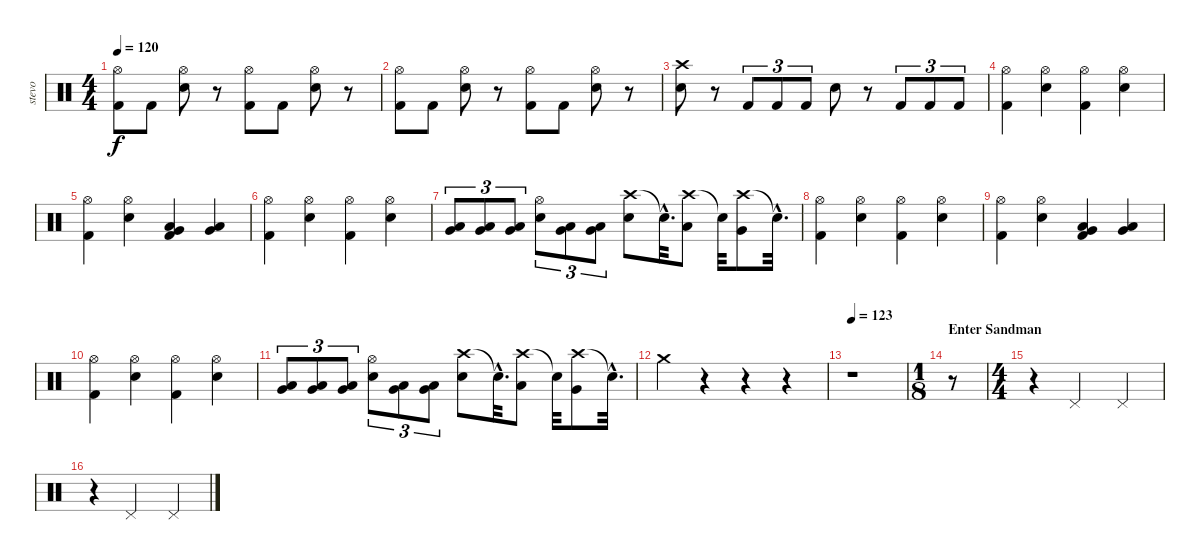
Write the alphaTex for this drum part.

\track ("stevo" "stevo") {instrument percussion}
\staff {score}
\articulation defaults
\ts (4 4)
\tempo 120
\clef neutral
\ks c
("Hi-Hat (open)" "Kick (hit) 2").8{dy f} "Kick (hit) 2".8 ("Hi-Hat (open)" "Electric Snare (hit)").8 r.8 ("Hi-Hat (open)" "Kick (hit) 2").8 "Kick (hit) 2".8 ("Hi-Hat (open)" "Electric Snare (hit)").8 r.8 |
("Hi-Hat (open)" "Kick (hit) 2").8 "Kick (hit) 2".8 ("Hi-Hat (open)" "Electric Snare (hit)").8 r.8 ("Hi-Hat (open)" "Kick (hit) 2").8 "Kick (hit) 2".8 ("Hi-Hat (open)" "Electric Snare (hit)").8 r.8 |
("Crash high (hit)" "Electric Snare (hit)").8 r.8 "Kick (hit) 2".8{tu (3 2)} "Kick (hit) 2".8{tu (3 2)} "Kick (hit) 2".8{tu (3 2)} "Electric Snare (hit)".8 r.8 "Kick (hit) 2".8{tu (3 2)} "Kick (hit) 2".8{tu (3 2)} "Kick (hit) 2".8{tu (3 2)} |
("Hi-Hat (open)" "Kick (hit) 2").4 ("Hi-Hat (open)" "Electric Snare (hit)").4 ("Hi-Hat (open)" "Kick (hit) 2").4 ("Hi-Hat (open)" "Electric Snare (hit)").4 |
("Hi-Hat (open)" "Kick (hit) 2").4 ("Hi-Hat (open)" "Electric Snare (hit)").4 ("Low Floor Tom (hit)" "Very Low Tom (hit)" "Kick (hit) 2").4 ("Very Low Tom (hit)" "Low Floor Tom (hit)").4 |
("Hi-Hat (open)" "Kick (hit) 2").4 ("Hi-Hat (open)" "Electric Snare (hit)").4 ("Hi-Hat (open)" "Kick (hit) 2").4 ("Hi-Hat (open)" "Electric Snare (hit)").4 |
("Low Floor Tom (hit)" "Very Low Tom (hit)").8{tu (3 2)} ("Low Floor Tom (hit)" "Very Low Tom (hit)").8{tu (3 2)} ("Low Floor Tom (hit)" "Very Low Tom (hit)").8{tu (3 2)} ("Hi-Hat (open)" "Electric Snare (hit)").8{tu (3 2)} ("Low Floor Tom (hit)" "Very Low Tom (hit)").8{tu (3 2)} ("Low Floor Tom (hit)" "Very Low Tom (hit)").8{tu (3 2)} ("Crash high (hit)" "Electric Snare (hit)").8 "Snare (hit)"{hac t}.32{d} ("Crash high (hit)" "Low Floor Tom (hit)").8 "Snare (hit)"{t}.32 ("Crash high (hit)" "Very Low Tom (hit)").8 "Snare (hit)"{hac t}.32{d} |
("Hi-Hat (open)" "Kick (hit) 2").4 ("Hi-Hat (open)" "Electric Snare (hit)").4 ("Hi-Hat (open)" "Kick (hit) 2").4 ("Hi-Hat (open)" "Electric Snare (hit)").4 |
("Hi-Hat (open)" "Kick (hit) 2").4 ("Hi-Hat (open)" "Electric Snare (hit)").4 ("Very Low Tom (hit)" "Low Floor Tom (hit)" "Kick (hit) 2").4 ("Very Low Tom (hit)" "Low Floor Tom (hit)").4 |
("Hi-Hat (open)" "Kick (hit) 2").4 ("Hi-Hat (open)" "Electric Snare (hit)").4 ("Hi-Hat (open)" "Kick (hit) 2").4 ("Hi-Hat (open)" "Electric Snare (hit)").4 |
("Low Floor Tom (hit)" "Very Low Tom (hit)").8{tu (3 2)} ("Low Floor Tom (hit)" "Very Low Tom (hit)").8{tu (3 2)} ("Low Floor Tom (hit)" "Very Low Tom (hit)").8{tu (3 2)} ("Hi-Hat (open)" "Electric Snare (hit)").8{tu (3 2)} ("Low Floor Tom (hit)" "Very Low Tom (hit)").8{tu (3 2)} ("Low Floor Tom (hit)" "Very Low Tom (hit)").8{tu (3 2)} ("Crash high (hit)" "Electric Snare (hit)").8 "Snare (hit)"{hac t}.32{d} ("Crash high (hit)" "Low Floor Tom (hit)").8 "Snare (hit)"{t}.32 ("Crash high (hit)" "Very Low Tom (hit)").8 "Snare (hit)"{hac t}.32{d} |
"Crash medium (hit)".4 r.4 r.4 r.4 |
\tempo 123
r.1 |
\ts (1 8)
\section ("" "Enter Sandman")
r.8 |
\ts (4 4)
r.4 "Pedal Hi-Hat (hit)".2 "Pedal Hi-Hat (hit)".4 |
r.4 "Pedal Hi-Hat (hit)".2 "Pedal Hi-Hat (hit)".4
